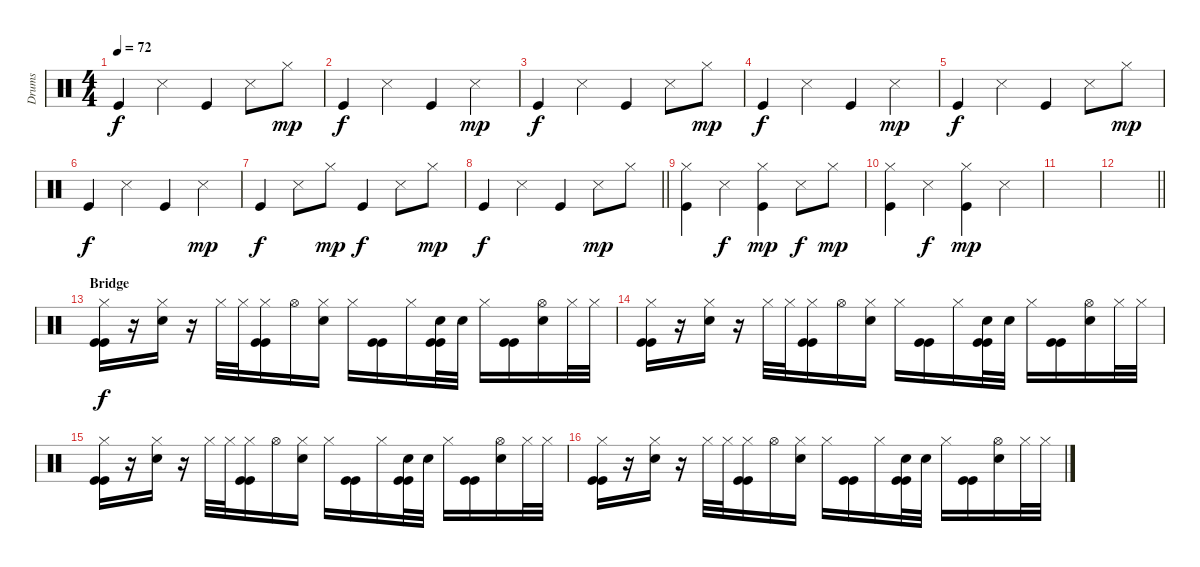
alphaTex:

\track ("Drums" "Drums") {instrument percussion}
\staff {score}
\articulation defaults
\ts (4 4)
\tempo 72
\clef neutral
\ks c "Kick (hit)".4{dy f} "Snare (side stick) 3".4 "Kick (hit)".4 "Snare (side stick) 3".8 "Hi-Hat (closed)".8{dy mp}
|
"Kick (hit)".4{dy f} "Snare (side stick) 3".4 "Kick (hit)".4 "Snare (side stick) 3".4{dy mp} |
"Kick (hit)".4{dy f} "Snare (side stick) 3".4 "Kick (hit)".4 "Snare (side stick) 3".8 "Hi-Hat (closed)".8{dy mp} |
"Kick (hit)".4{dy f} "Snare (side stick) 3".4 "Kick (hit)".4 "Snare (side stick) 3".4{dy mp} |
"Kick (hit)".4{dy f} "Snare (side stick) 3".4 "Kick (hit)".4 "Snare (side stick) 3".8 "Hi-Hat (closed)".8{dy mp} |
"Kick (hit)".4{dy f} "Snare (side stick) 3".4 "Kick (hit)".4 "Snare (side stick) 3".4{dy mp} |
"Kick (hit)".4{dy f} "Snare (side stick) 3".8 "Hi-Hat (closed)".8{dy mp} "Kick (hit)".4{dy f} "Snare (side stick) 3".8 "Hi-Hat (closed)".8{dy mp} |
\barLineRight lightlight "Kick (hit)".4{dy f} "Snare (side stick) 3".4 "Kick (hit)".4 "Snare (side stick) 3".8{dy mp} "Hi-Hat (closed)".8
|
("Kick (hit)" "Hi-Hat (closed)").4 "Snare (side stick) 3".4{dy f} ("Kick (hit)" "Hi-Hat (closed)").4{dy mp} "Snare (side stick) 3".8{dy f} "Hi-Hat (closed)".8{dy mp} |
("Kick (hit)" "Hi-Hat (closed)").4 "Snare (side stick) 3".4{dy f} ("Kick (hit)" "Hi-Hat (closed)").4{dy mp} "Snare (side stick) 3".4 |
|
\barLineRight lightlight
|
\section ("" "Bridge")
("Hi-Hat (closed)" "Kick (hit)" "Kick (hit)").16{dy f} r.16 ("Hi-Hat (closed)" "Snare (hit) 2").16 r.16 "Hi-Hat (closed)".32 "Hi-Hat (closed)".32 ("Hi-Hat (closed)" "Kick (hit)" "Kick (hit)").16 "Hi-Hat (open)".16 ("Hi-Hat (closed)" "Snare (hit) 2").16 "Hi-Hat (closed)".16 ("Kick (hit)" "Kick (hit)").16 "Hi-Hat (closed)".16 ("Snare (hit) 2" "Kick (hit)" "Kick (hit)").32 "Snare (hit) 2".32 "Hi-Hat (closed)".16 ("Kick (hit)" "Kick (hit)").16 ("Hi-Hat (open)" "Snare (hit) 2").16 "Hi-Hat (closed)".32 "Hi-Hat (closed)".32 |
("Hi-Hat (closed)" "Kick (hit)" "Kick (hit)").16 r.16 ("Hi-Hat (closed)" "Snare (hit) 2").16 r.16 "Hi-Hat (closed)".32 "Hi-Hat (closed)".32 ("Hi-Hat (closed)" "Kick (hit)" "Kick (hit)").16 "Hi-Hat (open)".16 ("Hi-Hat (closed)" "Snare (hit) 2").16 "Hi-Hat (closed)".16 ("Kick (hit)" "Kick (hit)").16 "Hi-Hat (closed)".16 ("Snare (hit) 2" "Kick (hit)" "Kick (hit)").32 "Snare (hit) 2".32 "Hi-Hat (closed)".16 ("Kick (hit)" "Kick (hit)").16 ("Hi-Hat (open)" "Snare (hit) 2").16 "Hi-Hat (closed)".32 "Hi-Hat (closed)".32 |
("Hi-Hat (closed)" "Kick (hit)" "Kick (hit)").16 r.16 ("Hi-Hat (closed)" "Snare (hit) 2").16 r.16 "Hi-Hat (closed)".32 "Hi-Hat (closed)".32 ("Hi-Hat (closed)" "Kick (hit)" "Kick (hit)").16 "Hi-Hat (open)".16 ("Hi-Hat (closed)" "Snare (hit) 2").16 "Hi-Hat (closed)".16 ("Kick (hit)" "Kick (hit)").16 "Hi-Hat (closed)".16 ("Snare (hit) 2" "Kick (hit)" "Kick (hit)").32 "Snare (hit) 2".32 "Hi-Hat (closed)".16 ("Kick (hit)" "Kick (hit)").16 ("Hi-Hat (open)" "Snare (hit) 2").16 "Hi-Hat (closed)".32 "Hi-Hat (closed)".32 |
("Hi-Hat (closed)" "Kick (hit)" "Kick (hit)").16 r.16 ("Hi-Hat (closed)" "Snare (hit) 2").16 r.16 "Hi-Hat (closed)".32 "Hi-Hat (closed)".32 ("Hi-Hat (closed)" "Kick (hit)" "Kick (hit)").16 "Hi-Hat (open)".16 ("Hi-Hat (closed)" "Snare (hit) 2").16 "Hi-Hat (closed)".16 ("Kick (hit)" "Kick (hit)").16 "Hi-Hat (closed)".16 ("Snare (hit) 2" "Kick (hit)" "Kick (hit)").32 "Snare (hit) 2".32 "Hi-Hat (closed)".16 ("Kick (hit)" "Kick (hit)").16 ("Hi-Hat (open)" "Snare (hit) 2").16 "Hi-Hat (closed)".32 "Hi-Hat (closed)".32
